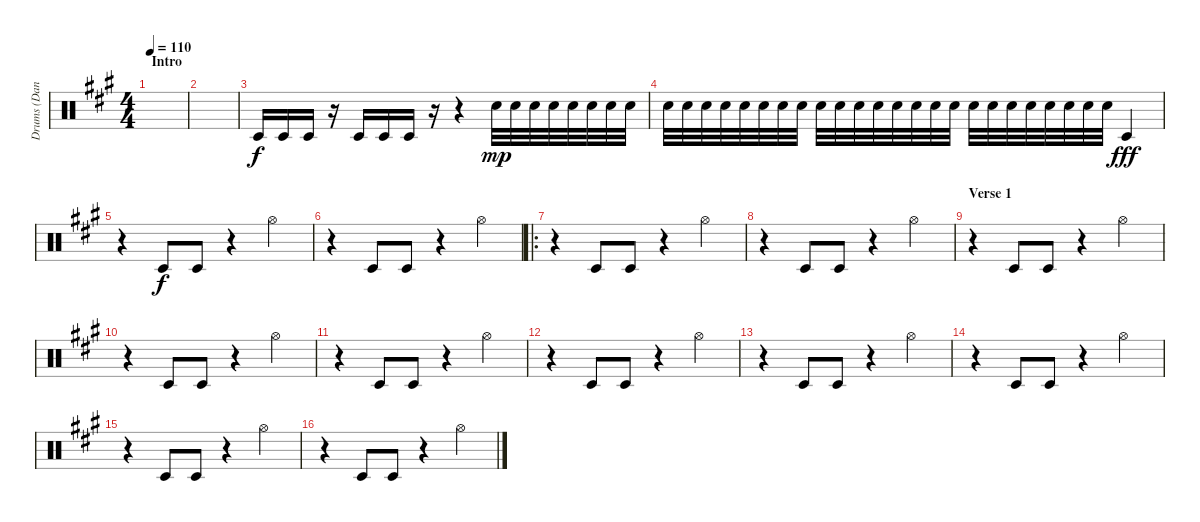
\track ("Drums (Dan Rieser)" "Drums (Dan") {instrument percussion}
\staff {score}
\articulation defaults
\ts (4 4)
\section ("" "Intro")
\tempo 110
\clef neutral
\ks a
|
|
"Timbale low (hit)".16 "Timbale low (hit)".16 "Timbale low (hit)".16 r.16 "Timbale low (hit)".16 "Timbale low (hit)".16 "Timbale low (hit)".16 r.16 r.4 "Snare (hit) 2".32{dy mp} "Snare (hit) 2".32 "Snare (hit) 2".32 "Snare (hit) 2".32 "Snare (hit) 2".32 "Snare (hit) 2".32 "Snare (hit) 2".32 "Snare (hit) 2".32 |
"Snare (hit) 2".32 "Snare (hit) 2".32 "Snare (hit) 2".32 "Snare (hit) 2".32 "Snare (hit) 2".32 "Snare (hit) 2".32 "Snare (hit) 2".32 "Snare (hit) 2".32 "Snare (hit) 2".32 "Snare (hit) 2".32 "Snare (hit) 2".32 "Snare (hit) 2".32 "Snare (hit) 2".32 "Snare (hit) 2".32 "Snare (hit) 2".32 "Snare (hit) 2".32 "Snare (hit) 2".32 "Snare (hit) 2".32 "Snare (hit) 2".32 "Snare (hit) 2".32 "Snare (hit) 2".32 "Snare (hit) 2".32 "Snare (hit) 2".32 "Snare (hit) 2".32 "Timbale low (hit)".4{dy fff} |
r.4 "Timbale low (hit)".8{dy f} "Timbale low (hit)".8 r.4 "Hi-Hat (open)".4 |
r.4 "Timbale low (hit)".8 "Timbale low (hit)".8 r.4 "Hi-Hat (open)".4 |
\ro
r.4 "Timbale low (hit)".8 "Timbale low (hit)".8 r.4 "Hi-Hat (open)".4 |
r.4 "Timbale low (hit)".8 "Timbale low (hit)".8 r.4 "Hi-Hat (open)".4 |
\section ("" "Verse 1")
r.4 "Timbale low (hit)".8 "Timbale low (hit)".8 r.4 "Hi-Hat (open)".4 |
r.4 "Timbale low (hit)".8 "Timbale low (hit)".8 r.4 "Hi-Hat (open)".4 |
r.4 "Timbale low (hit)".8 "Timbale low (hit)".8 r.4 "Hi-Hat (open)".4 |
r.4 "Timbale low (hit)".8 "Timbale low (hit)".8 r.4 "Hi-Hat (open)".4 |
r.4 "Timbale low (hit)".8 "Timbale low (hit)".8 r.4 "Hi-Hat (open)".4 |
r.4 "Timbale low (hit)".8 "Timbale low (hit)".8 r.4 "Hi-Hat (open)".4 |
r.4 "Timbale low (hit)".8 "Timbale low (hit)".8 r.4 "Hi-Hat (open)".4 |
r.4 "Timbale low (hit)".8 "Timbale low (hit)".8 r.4 "Hi-Hat (open)".4
